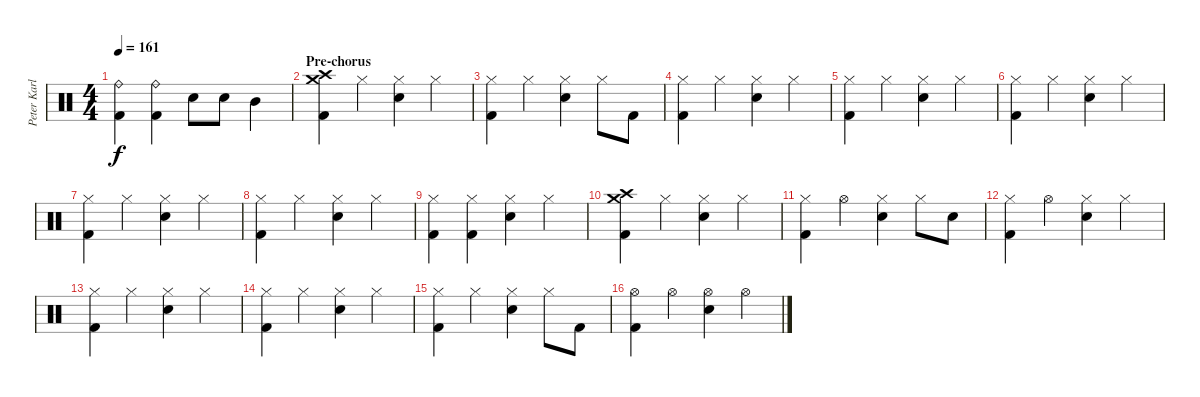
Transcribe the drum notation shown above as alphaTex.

\track ("Peter Karlsson" "Peter Karl") {instrument percussion}
\staff {score}
\articulation defaults
\ts (4 4)
\tempo 161
\clef neutral
\ks c
("Ride (bell)" "Kick (hit) 2").4{dy f} ("Ride (bell)" "Kick (hit) 2").4 "Snare (hit) 2".8 "Snare (hit) 2".8 "Mid Tom (hit)".4 |
\section ("" "Pre-chorus")
("Crash high (hit)" "Crash medium (hit)" "Kick (hit) 2").4 "Hi-Hat (closed)".4 ("Hi-Hat (closed)" "Snare (hit) 2").4 "Hi-Hat (closed)".4 |
("Hi-Hat (closed)" "Kick (hit) 2").4 "Hi-Hat (closed)".4 ("Hi-Hat (closed)" "Snare (hit) 2").4 "Hi-Hat (closed)".8 "Kick (hit) 2".8 |
("Hi-Hat (closed)" "Kick (hit) 2").4 "Hi-Hat (closed)".4 ("Hi-Hat (closed)" "Snare (hit) 2").4 "Hi-Hat (closed)".4 |
("Hi-Hat (closed)" "Kick (hit) 2").4 "Hi-Hat (closed)".4 ("Hi-Hat (closed)" "Snare (hit) 2").4 "Hi-Hat (closed)".4 |
("Hi-Hat (closed)" "Kick (hit) 2").4 "Hi-Hat (closed)".4 ("Hi-Hat (closed)" "Snare (hit) 2").4 "Hi-Hat (closed)".4 |
("Hi-Hat (closed)" "Kick (hit) 2").4 "Hi-Hat (closed)".4 ("Hi-Hat (closed)" "Snare (hit) 2").4 "Hi-Hat (closed)".4 |
("Hi-Hat (closed)" "Kick (hit) 2").4 "Hi-Hat (closed)".4 ("Hi-Hat (closed)" "Snare (hit) 2").4 "Hi-Hat (closed)".4 |
("Hi-Hat (closed)" "Kick (hit) 2").4 ("Hi-Hat (closed)" "Kick (hit) 2").4 ("Hi-Hat (closed)" "Snare (hit) 2").4 "Hi-Hat (closed)".4 |
("Crash high (hit)" "Crash medium (hit)" "Kick (hit) 2").4 "Hi-Hat (closed)".4 ("Hi-Hat (closed)" "Snare (hit) 2").4 "Hi-Hat (closed)".4 |
("Hi-Hat (closed)" "Kick (hit) 2").4 "Hi-Hat (open)".4 ("Hi-Hat (closed)" "Snare (hit) 2").4 "Hi-Hat (closed)".8 "Snare (hit) 2".8 |
("Hi-Hat (closed)" "Kick (hit) 2").4 "Hi-Hat (open)".4 ("Hi-Hat (closed)" "Snare (hit) 2").4 "Hi-Hat (closed)".4 |
("Hi-Hat (closed)" "Kick (hit) 2").4 "Hi-Hat (closed)".4 ("Hi-Hat (closed)" "Snare (hit) 2").4 "Hi-Hat (closed)".4 |
("Hi-Hat (closed)" "Kick (hit) 2").4 "Hi-Hat (closed)".4 ("Hi-Hat (closed)" "Snare (hit) 2").4 "Hi-Hat (closed)".4 |
("Hi-Hat (closed)" "Kick (hit) 2").4 "Hi-Hat (closed)".4 ("Hi-Hat (closed)" "Snare (hit) 2").4 "Hi-Hat (closed)".8 "Kick (hit) 2".8 |
("Hi-Hat (open)" "Kick (hit) 2").4 "Hi-Hat (open)".4 ("Hi-Hat (open)" "Snare (hit) 2").4 "Hi-Hat (open)".4
